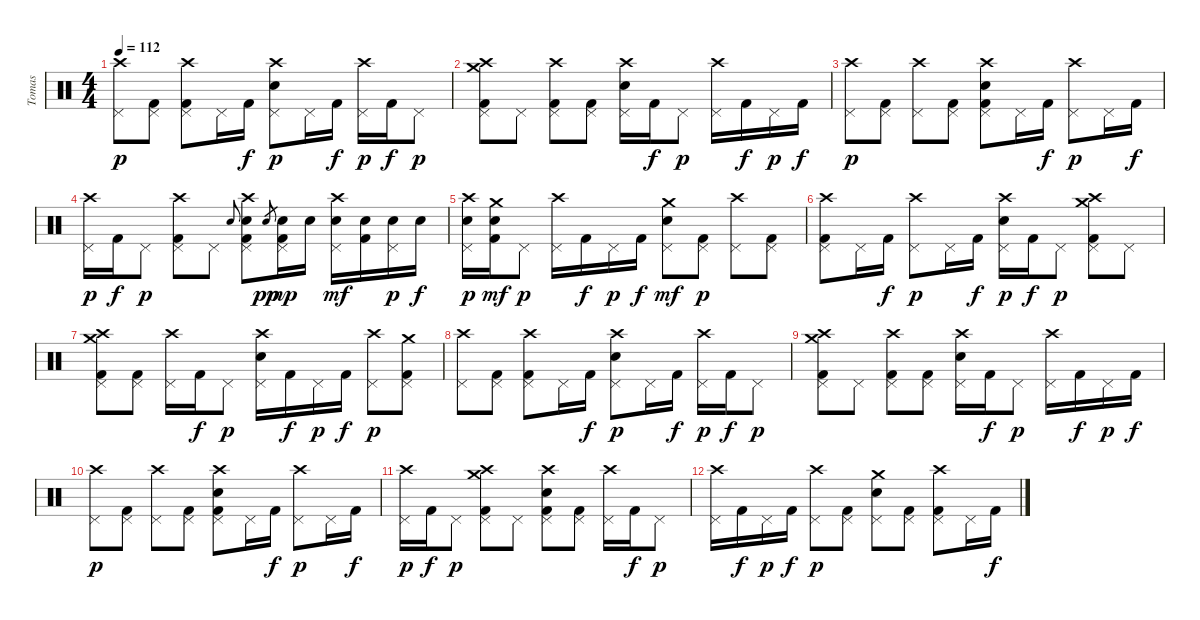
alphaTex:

\track ("Tomas" "Tomas") {instrument percussion}
\staff {score}
\articulation defaults
\ts (4 4)
\tempo 112
\clef neutral
\ks c
("Crash high (hit)" "Pedal Hi-Hat (hit)").8{dy p} ("Pedal Hi-Hat (hit)" "Kick (hit) 2").8 ("Crash high (hit)" "Pedal Hi-Hat (hit)" "Kick (hit) 2").8 "Pedal Hi-Hat (hit)".16 "Kick (hit) 2".16{dy f} ("Crash high (hit)" "Pedal Hi-Hat (hit)" "Electric Snare (hit)").8{dy p} "Pedal Hi-Hat (hit)".16 "Kick (hit) 2".16{dy f} ("Crash high (hit)" "Pedal Hi-Hat (hit)").16{dy p} "Kick (hit) 2".16{dy f} "Pedal Hi-Hat (hit)".8{dy p} |
("Crash high (hit)" "Crash medium (hit)" "Pedal Hi-Hat (hit)" "Kick (hit) 2").8 "Pedal Hi-Hat (hit)".8 ("Crash high (hit)" "Pedal Hi-Hat (hit)" "Kick (hit) 2").8 ("Pedal Hi-Hat (hit)" "Kick (hit) 2").8 ("Crash high (hit)" "Pedal Hi-Hat (hit)" "Electric Snare (hit)").16 "Kick (hit) 2".16{dy f} "Pedal Hi-Hat (hit)".8{dy p} ("Crash high (hit)" "Pedal Hi-Hat (hit)").16 "Kick (hit) 2".16{dy f} "Pedal Hi-Hat (hit)".16{dy p} "Kick (hit) 2".16{dy f} |
("Crash high (hit)" "Pedal Hi-Hat (hit)").8{dy p} ("Pedal Hi-Hat (hit)" "Kick (hit) 2").8 ("Crash high (hit)" "Pedal Hi-Hat (hit)").8 ("Pedal Hi-Hat (hit)" "Kick (hit) 2").8 ("Crash high (hit)" "Pedal Hi-Hat (hit)" "Electric Snare (hit)" "Kick (hit) 2").8 "Pedal Hi-Hat (hit)".16 "Kick (hit) 2".16{dy f} ("Crash high (hit)" "Pedal Hi-Hat (hit)").8{dy p} "Pedal Hi-Hat (hit)".16 "Kick (hit) 2".16{dy f} |
("Crash high (hit)" "Pedal Hi-Hat (hit)").16{dy p} "Kick (hit) 2".16{dy f} "Pedal Hi-Hat (hit)".8{dy p} ("Crash high (hit)" "Pedal Hi-Hat (hit)" "Kick (hit) 2").8 "Pedal Hi-Hat (hit)".8 "Electric Snare (hit)".8{gr onbeat} ("Crash high (hit)" "Pedal Hi-Hat (hit)" "Electric Snare (hit)" "Kick (hit) 2").8 "Electric Snare (hit)".8{gr dy pp} ("Pedal Hi-Hat (hit)" "Electric Snare (hit)" "Kick (hit) 2").16{dy mp} "Electric Snare (hit)".16 ("Crash high (hit)" "Pedal Hi-Hat (hit)" "Electric Snare (hit)").16{dy mf} ("Electric Snare (hit)" "Kick (hit) 2").16 ("Pedal Hi-Hat (hit)" "Electric Snare (hit)").16{dy p} "Electric Snare (hit)".16{dy f} |
("Crash high (hit)" "Pedal Hi-Hat (hit)" "Electric Snare (hit)").16{dy p} ("Crash medium (hit)" "Electric Snare (hit)" "Kick (hit) 2").16{dy mf} "Pedal Hi-Hat (hit)".8{dy p} ("Crash high (hit)" "Pedal Hi-Hat (hit)").16 "Kick (hit) 2".16{dy f} "Pedal Hi-Hat (hit)".16{dy p} "Kick (hit) 2".16{dy f} ("Crash medium (hit)" "Pedal Hi-Hat (hit)" "Electric Snare (hit)").8{dy mf} ("Pedal Hi-Hat (hit)" "Kick (hit) 2").8{dy p} ("Crash high (hit)" "Pedal Hi-Hat (hit)").8 ("Pedal Hi-Hat (hit)" "Kick (hit) 2").8 |
("Crash high (hit)" "Pedal Hi-Hat (hit)" "Kick (hit) 2").8 "Pedal Hi-Hat (hit)".16 "Kick (hit) 2".16{dy f} ("Crash high (hit)" "Pedal Hi-Hat (hit)").8{dy p} "Pedal Hi-Hat (hit)".16 "Kick (hit) 2".16{dy f} ("Crash high (hit)" "Pedal Hi-Hat (hit)" "Electric Snare (hit)").16{dy p} "Kick (hit) 2".16{dy f} "Pedal Hi-Hat (hit)".8{dy p} ("Crash high (hit)" "Crash medium (hit)" "Pedal Hi-Hat (hit)" "Kick (hit) 2").8 "Pedal Hi-Hat (hit)".8 |
("Crash high (hit)" "Crash medium (hit)" "Pedal Hi-Hat (hit)" "Kick (hit) 2").8 ("Pedal Hi-Hat (hit)" "Kick (hit) 2").8 ("Crash high (hit)" "Pedal Hi-Hat (hit)").16 "Kick (hit) 2".16{dy f} "Pedal Hi-Hat (hit)".8{dy p} ("Crash high (hit)" "Pedal Hi-Hat (hit)" "Electric Snare (hit)").16 "Kick (hit) 2".16{dy f} "Pedal Hi-Hat (hit)".16{dy p} "Kick (hit) 2".16{dy f} ("Crash high (hit)" "Pedal Hi-Hat (hit)").8{dy p} ("Crash medium (hit)" "Pedal Hi-Hat (hit)" "Kick (hit) 2").8 |
("Crash high (hit)" "Pedal Hi-Hat (hit)").8 ("Pedal Hi-Hat (hit)" "Kick (hit) 2").8 ("Crash high (hit)" "Pedal Hi-Hat (hit)" "Kick (hit) 2").8 "Pedal Hi-Hat (hit)".16 "Kick (hit) 2".16{dy f} ("Crash high (hit)" "Pedal Hi-Hat (hit)" "Electric Snare (hit)").8{dy p} "Pedal Hi-Hat (hit)".16 "Kick (hit) 2".16{dy f} ("Crash high (hit)" "Pedal Hi-Hat (hit)").16{dy p} "Kick (hit) 2".16{dy f} "Pedal Hi-Hat (hit)".8{dy p} |
("Crash high (hit)" "Crash medium (hit)" "Pedal Hi-Hat (hit)" "Kick (hit) 2").8 "Pedal Hi-Hat (hit)".8 ("Crash high (hit)" "Pedal Hi-Hat (hit)" "Kick (hit) 2").8 ("Pedal Hi-Hat (hit)" "Kick (hit) 2").8 ("Crash high (hit)" "Pedal Hi-Hat (hit)" "Electric Snare (hit)").16 "Kick (hit) 2".16{dy f} "Pedal Hi-Hat (hit)".8{dy p} ("Crash high (hit)" "Pedal Hi-Hat (hit)").16 "Kick (hit) 2".16{dy f} "Pedal Hi-Hat (hit)".16{dy p} "Kick (hit) 2".16{dy f} |
("Crash high (hit)" "Pedal Hi-Hat (hit)").8{dy p} ("Pedal Hi-Hat (hit)" "Kick (hit) 2").8 ("Crash high (hit)" "Pedal Hi-Hat (hit)").8 ("Pedal Hi-Hat (hit)" "Kick (hit) 2").8 ("Crash high (hit)" "Pedal Hi-Hat (hit)" "Electric Snare (hit)" "Kick (hit) 2").8 "Pedal Hi-Hat (hit)".16 "Kick (hit) 2".16{dy f} ("Crash high (hit)" "Pedal Hi-Hat (hit)").8{dy p} "Pedal Hi-Hat (hit)".16 "Kick (hit) 2".16{dy f} |
("Crash high (hit)" "Pedal Hi-Hat (hit)").16{dy p} "Kick (hit) 2".16{dy f} "Pedal Hi-Hat (hit)".8{dy p} ("Crash high (hit)" "Crash medium (hit)" "Pedal Hi-Hat (hit)" "Kick (hit) 2").8 "Pedal Hi-Hat (hit)".8 ("Crash high (hit)" "Pedal Hi-Hat (hit)" "Electric Snare (hit)" "Kick (hit) 2").8 ("Pedal Hi-Hat (hit)" "Kick (hit) 2").8 ("Crash high (hit)" "Pedal Hi-Hat (hit)").16 "Kick (hit) 2".16{dy f} "Pedal Hi-Hat (hit)".8{dy p} |
("Crash high (hit)" "Pedal Hi-Hat (hit)").16 "Kick (hit) 2".16{dy f} "Pedal Hi-Hat (hit)".16{dy p} "Kick (hit) 2".16{dy f} ("Crash high (hit)" "Pedal Hi-Hat (hit)").8{dy p} ("Pedal Hi-Hat (hit)" "Kick (hit) 2").8 ("Crash medium (hit)" "Pedal Hi-Hat (hit)" "Electric Snare (hit)").8 ("Pedal Hi-Hat (hit)" "Kick (hit) 2").8 ("Crash high (hit)" "Pedal Hi-Hat (hit)" "Kick (hit) 2").8 "Pedal Hi-Hat (hit)".16 "Kick (hit) 2".16{dy f}
